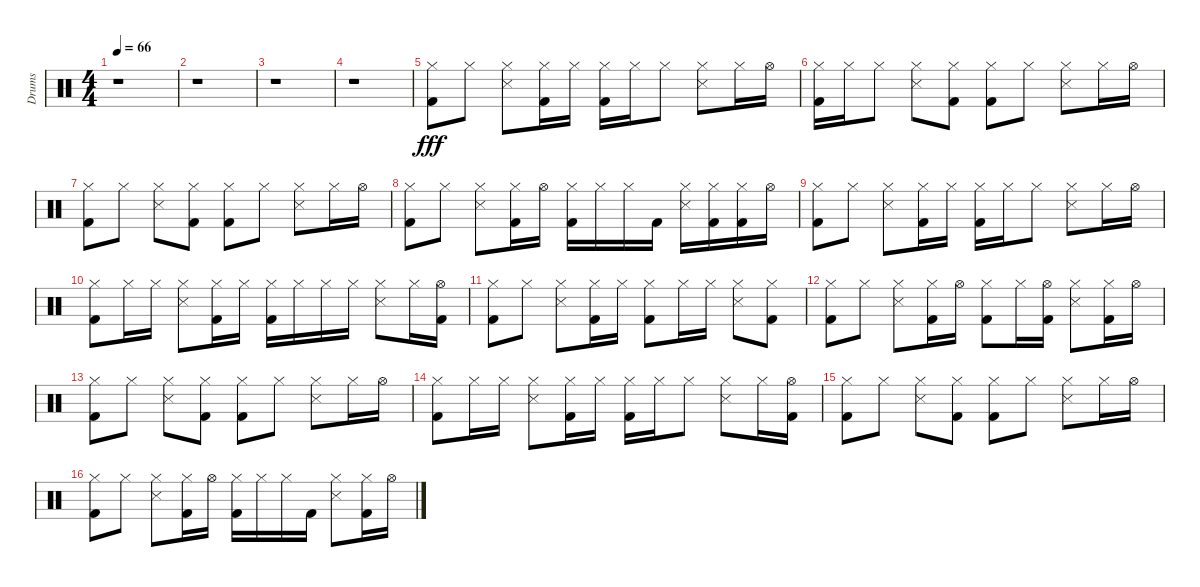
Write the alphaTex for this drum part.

\track ("Drums" "Drums") {instrument percussion}
\staff {score}
\articulation defaults
\ts (4 4)
\tempo 66
\clef neutral
\ks c
r.1{dy fff} |
r.1 |
r.1 |
r.1 |
("Hi-Hat (closed)" "Kick (hit) 2").8 "Hi-Hat (closed)".8 ("Hi-Hat (closed)" "Snare (side stick) 3").8 ("Hi-Hat (closed)" "Kick (hit) 2").16 "Hi-Hat (closed)".16 ("Hi-Hat (closed)" "Kick (hit) 2").16 "Hi-Hat (closed)".16 "Hi-Hat (closed)".8 ("Hi-Hat (closed)" "Snare (side stick) 3").8 "Hi-Hat (closed)".16 "Hi-Hat (open)".16 |
("Hi-Hat (closed)" "Kick (hit) 2").16 "Hi-Hat (closed)".16 "Hi-Hat (closed)".8 ("Hi-Hat (closed)" "Snare (side stick) 3").8 ("Hi-Hat (closed)" "Kick (hit) 2").8 ("Hi-Hat (closed)" "Kick (hit) 2").8 "Hi-Hat (closed)".8 ("Hi-Hat (closed)" "Snare (side stick) 3").8 "Hi-Hat (closed)".16 "Hi-Hat (open)".16 |
("Hi-Hat (closed)" "Kick (hit) 2").8 "Hi-Hat (closed)".8 ("Hi-Hat (closed)" "Snare (side stick) 3").8 ("Hi-Hat (closed)" "Kick (hit) 2").8 ("Hi-Hat (closed)" "Kick (hit) 2").8 "Hi-Hat (closed)".8 ("Hi-Hat (closed)" "Snare (side stick) 3").8 "Hi-Hat (closed)".16 "Hi-Hat (open)".16 |
("Hi-Hat (closed)" "Kick (hit) 2").8 "Hi-Hat (closed)".8 ("Hi-Hat (closed)" "Snare (side stick) 3").8 ("Hi-Hat (closed)" "Kick (hit) 2").16 "Hi-Hat (open)".16 ("Hi-Hat (closed)" "Kick (hit) 2").16 "Hi-Hat (closed)".16 "Hi-Hat (closed)".16 "Kick (hit) 2".16 ("Hi-Hat (closed)" "Snare (side stick) 3").16 ("Hi-Hat (closed)" "Kick (hit) 2").16 ("Hi-Hat (closed)" "Kick (hit) 2").16 "Hi-Hat (open)".16 |
("Hi-Hat (closed)" "Kick (hit) 2").8 "Hi-Hat (closed)".8 ("Hi-Hat (closed)" "Snare (side stick) 3").8 ("Hi-Hat (closed)" "Kick (hit) 2").16 "Hi-Hat (closed)".16 ("Hi-Hat (closed)" "Kick (hit) 2").16 "Hi-Hat (closed)".16 "Hi-Hat (closed)".8 ("Hi-Hat (closed)" "Snare (side stick) 3").8 "Hi-Hat (closed)".16 "Hi-Hat (open)".16 |
("Hi-Hat (closed)" "Kick (hit) 2").8 "Hi-Hat (closed)".16 "Hi-Hat (closed)".16 ("Hi-Hat (closed)" "Snare (side stick) 3").8 ("Hi-Hat (closed)" "Kick (hit) 2").16 "Hi-Hat (closed)".16 ("Hi-Hat (closed)" "Kick (hit) 2").16 "Hi-Hat (closed)".16 "Hi-Hat (closed)".16 "Hi-Hat (closed)".16 ("Hi-Hat (closed)" "Snare (side stick) 3").8 "Hi-Hat (closed)".16 ("Hi-Hat (open)" "Kick (hit) 2").16 |
("Hi-Hat (closed)" "Kick (hit) 2").8 "Hi-Hat (closed)".8 ("Hi-Hat (closed)" "Snare (side stick) 3").8 ("Hi-Hat (closed)" "Kick (hit) 2").16 "Hi-Hat (closed)".16 ("Hi-Hat (closed)" "Kick (hit) 2").8 "Hi-Hat (closed)".16 "Hi-Hat (closed)".16 ("Hi-Hat (closed)" "Snare (side stick) 3").8 ("Hi-Hat (closed)" "Kick (hit) 2").8 |
("Hi-Hat (closed)" "Kick (hit) 2").8 "Hi-Hat (closed)".8 ("Hi-Hat (closed)" "Snare (side stick) 3").8 ("Hi-Hat (closed)" "Kick (hit) 2").16 "Hi-Hat (open)".16 ("Hi-Hat (closed)" "Kick (hit) 2").8 "Hi-Hat (closed)".16 ("Hi-Hat (open)" "Kick (hit) 2").16 ("Hi-Hat (closed)" "Snare (side stick) 3").8 ("Hi-Hat (closed)" "Kick (hit) 2").16 "Hi-Hat (open)".16 |
("Hi-Hat (closed)" "Kick (hit) 2").8 "Hi-Hat (closed)".8 ("Hi-Hat (closed)" "Snare (side stick) 3").8 ("Hi-Hat (closed)" "Kick (hit) 2").8 ("Hi-Hat (closed)" "Kick (hit) 2").8 "Hi-Hat (closed)".8 ("Hi-Hat (closed)" "Snare (side stick) 3").8 "Hi-Hat (closed)".16 "Hi-Hat (open)".16 |
("Hi-Hat (closed)" "Kick (hit) 2").8 "Hi-Hat (closed)".16 "Hi-Hat (closed)".16 ("Hi-Hat (closed)" "Snare (side stick) 3").8 ("Hi-Hat (closed)" "Kick (hit) 2").16 "Hi-Hat (closed)".16 ("Hi-Hat (closed)" "Kick (hit) 2").16 "Hi-Hat (closed)".16 "Hi-Hat (closed)".8 ("Hi-Hat (closed)" "Snare (side stick) 3").8 "Hi-Hat (closed)".16 ("Hi-Hat (open)" "Kick (hit) 2").16 |
("Hi-Hat (closed)" "Kick (hit) 2").8 "Hi-Hat (closed)".8 ("Hi-Hat (closed)" "Snare (side stick) 3").8 ("Hi-Hat (closed)" "Kick (hit) 2").8 ("Hi-Hat (closed)" "Kick (hit) 2").8 "Hi-Hat (closed)".8 ("Hi-Hat (closed)" "Snare (side stick) 3").8 "Hi-Hat (closed)".16 "Hi-Hat (open)".16 |
("Hi-Hat (closed)" "Kick (hit) 2").8 "Hi-Hat (closed)".8 ("Hi-Hat (closed)" "Snare (side stick) 3").8 ("Hi-Hat (closed)" "Kick (hit) 2").16 "Hi-Hat (open)".16 ("Hi-Hat (closed)" "Kick (hit) 2").16 "Hi-Hat (closed)".16 "Hi-Hat (closed)".16 "Kick (hit) 2".16 ("Hi-Hat (closed)" "Snare (side stick) 3").8 ("Hi-Hat (closed)" "Kick (hit) 2").16 "Hi-Hat (open)".16
